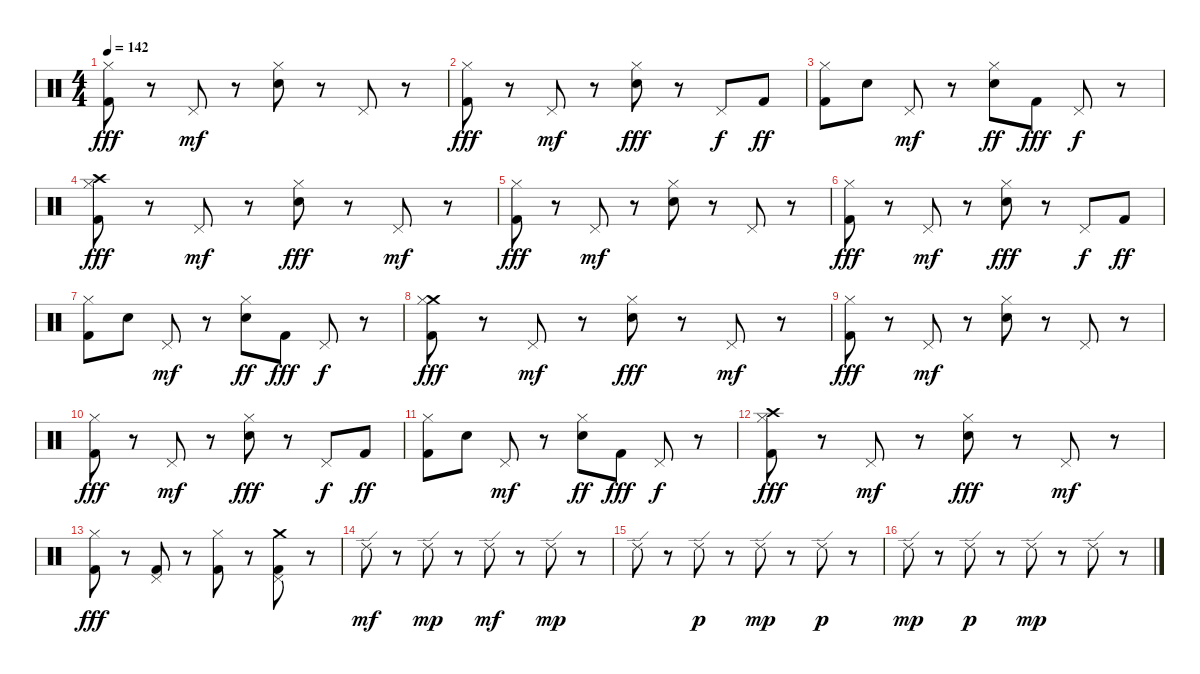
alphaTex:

\track "" {instrument percussion}
\staff {score}
\articulation defaults
\ts (4 4)
\tempo 142
\clef neutral
\ks c
("Kick (hit) 2" "Hi-Hat (closed)").8{dy fff} r.8 "Pedal Hi-Hat (hit)".8{dy mf} r.8 ("Electric Snare (hit)" "Hi-Hat (closed)").8 r.8 "Pedal Hi-Hat (hit)".8 r.8 |
("Kick (hit) 2" "Hi-Hat (closed)").8{dy fff} r.8 "Pedal Hi-Hat (hit)".8{dy mf} r.8 ("Electric Snare (hit)" "Hi-Hat (closed)").8{dy fff} r.8 "Pedal Hi-Hat (hit)".8{dy f} "Kick (hit) 2".8{dy ff} |
("Kick (hit) 2" "Hi-Hat (closed)").8 "Electric Snare (hit)".8 "Pedal Hi-Hat (hit)".8{dy mf} r.8 ("Electric Snare (hit)" "Hi-Hat (closed)").8{dy ff} "Kick (hit) 2".8{dy fff} "Pedal Hi-Hat (hit)".8{dy f} r.8 |
("Crash high (hit)" "Kick (hit) 2" "Hi-Hat (closed)").8{dy fff} r.8 "Pedal Hi-Hat (hit)".8{dy mf} r.8 ("Electric Snare (hit)" "Hi-Hat (closed)").8{dy fff} r.8 "Pedal Hi-Hat (hit)".8{dy mf} r.8 |
("Kick (hit) 2" "Hi-Hat (closed)").8{dy fff} r.8 "Pedal Hi-Hat (hit)".8{dy mf} r.8 ("Electric Snare (hit)" "Hi-Hat (closed)").8 r.8 "Pedal Hi-Hat (hit)".8 r.8 |
("Kick (hit) 2" "Hi-Hat (closed)").8{dy fff} r.8 "Pedal Hi-Hat (hit)".8{dy mf} r.8 ("Electric Snare (hit)" "Hi-Hat (closed)").8{dy fff} r.8 "Pedal Hi-Hat (hit)".8{dy f} "Kick (hit) 2".8{dy ff} |
("Kick (hit) 2" "Hi-Hat (closed)").8 "Electric Snare (hit)".8 "Pedal Hi-Hat (hit)".8{dy mf} r.8 ("Electric Snare (hit)" "Hi-Hat (closed)").8{dy ff} "Kick (hit) 2".8{dy fff} "Pedal Hi-Hat (hit)".8{dy f} r.8 |
("Crash medium (hit)" "Kick (hit) 2" "Hi-Hat (closed)").8{dy fff} r.8 "Pedal Hi-Hat (hit)".8{dy mf} r.8 ("Electric Snare (hit)" "Hi-Hat (closed)").8{dy fff} r.8 "Pedal Hi-Hat (hit)".8{dy mf} r.8 |
("Kick (hit) 2" "Hi-Hat (closed)").8{dy fff} r.8 "Pedal Hi-Hat (hit)".8{dy mf} r.8 ("Electric Snare (hit)" "Hi-Hat (closed)").8 r.8 "Pedal Hi-Hat (hit)".8 r.8 |
("Kick (hit) 2" "Hi-Hat (closed)").8{dy fff} r.8 "Pedal Hi-Hat (hit)".8{dy mf} r.8 ("Electric Snare (hit)" "Hi-Hat (closed)").8{dy fff} r.8 "Pedal Hi-Hat (hit)".8{dy f} "Kick (hit) 2".8{dy ff} |
("Kick (hit) 2" "Hi-Hat (closed)").8 "Electric Snare (hit)".8 "Pedal Hi-Hat (hit)".8{dy mf} r.8 ("Electric Snare (hit)" "Hi-Hat (closed)").8{dy ff} "Kick (hit) 2".8{dy fff} "Pedal Hi-Hat (hit)".8{dy f} r.8 |
("Crash high (hit)" "Kick (hit) 2" "Hi-Hat (closed)").8{dy fff} r.8 "Pedal Hi-Hat (hit)".8{dy mf} r.8 ("Electric Snare (hit)" "Hi-Hat (closed)").8{dy fff} r.8 "Pedal Hi-Hat (hit)".8{dy mf} r.8 |
("Kick (hit) 2" "Hi-Hat (closed)").8{dy fff} r.8 ("Pedal Hi-Hat (hit)" "Kick (hit) 2").8 r.8 ("Kick (hit) 2" "Hi-Hat (closed)").8 r.8 ("Crash medium (hit)" "Pedal Hi-Hat (hit)" "Kick (hit) 2").8 r.8 |
"Ride (edge) 2".8{dy mf} r.8 "Ride (edge) 2".8{dy mp} r.8 "Ride (edge) 2".8{dy mf} r.8 "Ride (edge) 2".8{dy mp} r.8 |
"Ride (edge) 2".8 r.8 "Ride (edge) 2".8{dy p} r.8 "Ride (edge) 2".8{dy mp} r.8 "Ride (edge) 2".8{dy p} r.8 |
"Ride (edge) 2".8{dy mp} r.8 "Ride (edge) 2".8{dy p} r.8 "Ride (edge) 2".8{dy mp} r.8 "Ride (edge) 2".8 r.8
